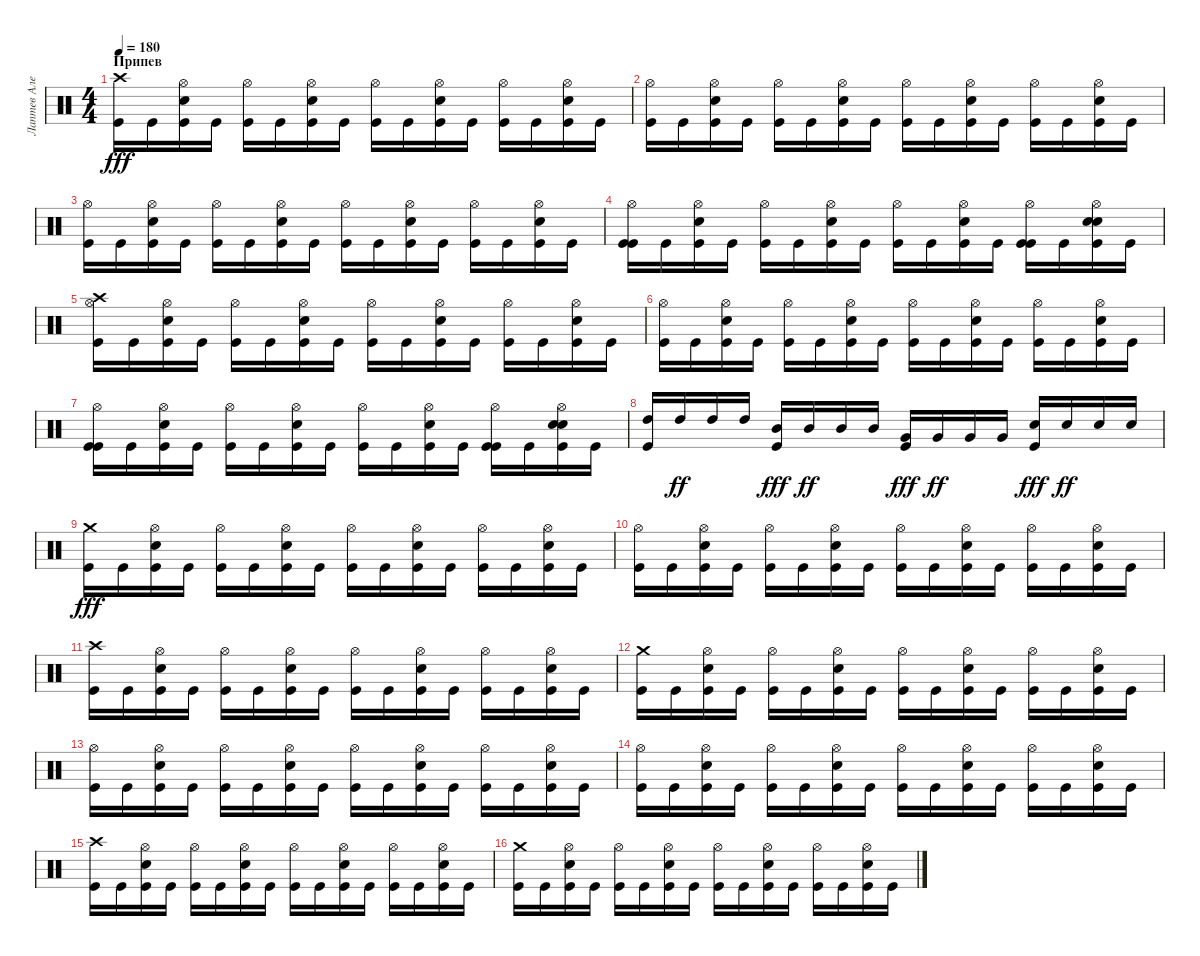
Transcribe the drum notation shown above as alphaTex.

\track ("Лаптев Алексей" "Лаптев Але") {instrument percussion}
\staff {score}
\articulation defaults
\ts (4 4)
\section ("" "Припев")
\tempo 180
\clef neutral
\ks c
("Crash high (hit)" "Kick (hit)").16{dy fff} "Kick (hit)".16 ("Hi-Hat (open)" "Snare (hit) 2" "Kick (hit)").16 "Kick (hit)".16 ("Hi-Hat (open)" "Kick (hit)").16 "Kick (hit)".16 ("Snare (hit) 2" "Hi-Hat (open)" "Kick (hit)").16 "Kick (hit)".16 ("Hi-Hat (open)" "Kick (hit)").16 "Kick (hit)".16 ("Hi-Hat (open)" "Snare (hit) 2" "Kick (hit)").16 "Kick (hit)".16 ("Hi-Hat (open)" "Kick (hit)").16 "Kick (hit)".16 ("Hi-Hat (open)" "Snare (hit) 2" "Kick (hit)").16 "Kick (hit)".16 |
("Hi-Hat (open)" "Kick (hit)").16 "Kick (hit)".16 ("Hi-Hat (open)" "Snare (hit) 2" "Kick (hit)").16 "Kick (hit)".16 ("Hi-Hat (open)" "Kick (hit)").16 "Kick (hit)".16 ("Snare (hit) 2" "Hi-Hat (open)" "Kick (hit)").16 "Kick (hit)".16 ("Hi-Hat (open)" "Kick (hit)").16 "Kick (hit)".16 ("Hi-Hat (open)" "Snare (hit) 2" "Kick (hit)").16 "Kick (hit)".16 ("Hi-Hat (open)" "Kick (hit)").16 "Kick (hit)".16 ("Hi-Hat (open)" "Snare (hit) 2" "Kick (hit)").16 "Kick (hit)".16 |
("Hi-Hat (open)" "Kick (hit)").16 "Kick (hit)".16 ("Hi-Hat (open)" "Snare (hit) 2" "Kick (hit)").16 "Kick (hit)".16 ("Hi-Hat (open)" "Kick (hit)").16 "Kick (hit)".16 ("Snare (hit) 2" "Hi-Hat (open)" "Kick (hit)").16 "Kick (hit)".16 ("Hi-Hat (open)" "Kick (hit)").16 "Kick (hit)".16 ("Hi-Hat (open)" "Snare (hit) 2" "Kick (hit)").16 "Kick (hit)".16 ("Hi-Hat (open)" "Kick (hit)").16 "Kick (hit)".16 ("Hi-Hat (open)" "Snare (hit) 2" "Kick (hit)").16 "Kick (hit)".16 |
("Hi-Hat (open)" "Kick (hit)" "Kick (hit)").16 "Kick (hit)".16 ("Hi-Hat (open)" "Snare (hit) 2" "Kick (hit)").16 "Kick (hit)".16 ("Hi-Hat (open)" "Kick (hit)").16 "Kick (hit)".16 ("Snare (hit) 2" "Hi-Hat (open)" "Kick (hit)").16 "Kick (hit)".16 ("Hi-Hat (open)" "Kick (hit)").16 "Kick (hit)".16 ("Hi-Hat (open)" "Snare (hit) 2" "Kick (hit)").16 "Kick (hit)".16 ("Hi-Hat (open)" "Kick (hit)" "Kick (hit)").16 "Kick (hit)".16 ("Snare (hit) 2" "Hi-Hat (open)" "Snare (hit) 2" "Kick (hit)").16 "Kick (hit)".16 |
("Crash high (hit)" "Hi-Hat (open)" "Kick (hit)").16 "Kick (hit)".16 ("Hi-Hat (open)" "Snare (hit) 2" "Kick (hit)").16 "Kick (hit)".16 ("Hi-Hat (open)" "Kick (hit)").16 "Kick (hit)".16 ("Snare (hit) 2" "Hi-Hat (open)" "Kick (hit)").16 "Kick (hit)".16 ("Hi-Hat (open)" "Kick (hit)").16 "Kick (hit)".16 ("Hi-Hat (open)" "Snare (hit) 2" "Kick (hit)").16 "Kick (hit)".16 ("Hi-Hat (open)" "Kick (hit)").16 "Kick (hit)".16 ("Hi-Hat (open)" "Snare (hit) 2" "Kick (hit)").16 "Kick (hit)".16 |
("Hi-Hat (open)" "Kick (hit)").16 "Kick (hit)".16 ("Hi-Hat (open)" "Snare (hit) 2" "Kick (hit)").16 "Kick (hit)".16 ("Hi-Hat (open)" "Kick (hit)").16 "Kick (hit)".16 ("Snare (hit) 2" "Hi-Hat (open)" "Kick (hit)").16 "Kick (hit)".16 ("Hi-Hat (open)" "Kick (hit)").16 "Kick (hit)".16 ("Hi-Hat (open)" "Snare (hit) 2" "Kick (hit)").16 "Kick (hit)".16 ("Hi-Hat (open)" "Kick (hit)").16 "Kick (hit)".16 ("Hi-Hat (open)" "Snare (hit) 2" "Kick (hit)").16 "Kick (hit)".16 |
("Hi-Hat (open)" "Kick (hit)" "Kick (hit)").16 "Kick (hit)".16 ("Hi-Hat (open)" "Snare (hit) 2" "Kick (hit)").16 "Kick (hit)".16 ("Hi-Hat (open)" "Kick (hit)").16 "Kick (hit)".16 ("Snare (hit) 2" "Hi-Hat (open)" "Kick (hit)").16 "Kick (hit)".16 ("Hi-Hat (open)" "Kick (hit)").16 "Kick (hit)".16 ("Hi-Hat (open)" "Snare (hit) 2" "Kick (hit)").16 "Kick (hit)".16 ("Hi-Hat (open)" "Kick (hit)" "Kick (hit)").16 "Kick (hit)".16 ("Snare (hit) 2" "Hi-Hat (open)" "Snare (hit) 2" "Kick (hit)").16 "Kick (hit)".16 |
("High Tom (hit)" "Kick (hit)").16 "High Tom (hit)".16{dy ff} "High Tom (hit)".16 "High Tom (hit)".16 ("Mid Tom (hit)" "Kick (hit)").16{dy fff} "Mid Tom (hit)".16{dy ff} "Mid Tom (hit)".16 "Mid Tom (hit)".16 ("Very Low Tom (hit)" "Kick (hit)").16{dy fff} "Very Low Tom (hit)".16{dy ff} "Very Low Tom (hit)".16 "Very Low Tom (hit)".16 ("Electric Snare (hit)" "Kick (hit)").16{dy fff} "Electric Snare (hit)".16{dy ff} "Electric Snare (hit)".16 "Electric Snare (hit)".16 |
("Crash medium (hit)" "Kick (hit)").16{dy fff} "Kick (hit)".16 ("Hi-Hat (open)" "Snare (hit) 2" "Kick (hit)").16 "Kick (hit)".16 ("Hi-Hat (open)" "Kick (hit)").16 "Kick (hit)".16 ("Snare (hit) 2" "Hi-Hat (open)" "Kick (hit)").16 "Kick (hit)".16 ("Hi-Hat (open)" "Kick (hit)").16 "Kick (hit)".16 ("Hi-Hat (open)" "Snare (hit) 2" "Kick (hit)").16 "Kick (hit)".16 ("Hi-Hat (open)" "Kick (hit)").16 "Kick (hit)".16 ("Hi-Hat (open)" "Snare (hit) 2" "Kick (hit)").16 "Kick (hit)".16 |
("Hi-Hat (open)" "Kick (hit)").16 "Kick (hit)".16 ("Hi-Hat (open)" "Snare (hit) 2" "Kick (hit)").16 "Kick (hit)".16 ("Hi-Hat (open)" "Kick (hit)").16 "Kick (hit)".16 ("Snare (hit) 2" "Hi-Hat (open)" "Kick (hit)").16 "Kick (hit)".16 ("Hi-Hat (open)" "Kick (hit)").16 "Kick (hit)".16 ("Hi-Hat (open)" "Snare (hit) 2" "Kick (hit)").16 "Kick (hit)".16 ("Hi-Hat (open)" "Kick (hit)").16 "Kick (hit)".16 ("Hi-Hat (open)" "Snare (hit) 2" "Kick (hit)").16 "Kick (hit)".16 |
("Crash high (hit)" "Kick (hit)").16 "Kick (hit)".16 ("Hi-Hat (open)" "Snare (hit) 2" "Kick (hit)").16 "Kick (hit)".16 ("Hi-Hat (open)" "Kick (hit)").16 "Kick (hit)".16 ("Snare (hit) 2" "Hi-Hat (open)" "Kick (hit)").16 "Kick (hit)".16 ("Hi-Hat (open)" "Kick (hit)").16 "Kick (hit)".16 ("Hi-Hat (open)" "Snare (hit) 2" "Kick (hit)").16 "Kick (hit)".16 ("Hi-Hat (open)" "Kick (hit)").16 "Kick (hit)".16 ("Hi-Hat (open)" "Snare (hit) 2" "Kick (hit)").16 "Kick (hit)".16 |
("Crash medium (hit)" "Kick (hit)").16 "Kick (hit)".16 ("Hi-Hat (open)" "Snare (hit) 2" "Kick (hit)").16 "Kick (hit)".16 ("Hi-Hat (open)" "Kick (hit)").16 "Kick (hit)".16 ("Snare (hit) 2" "Hi-Hat (open)" "Kick (hit)").16 "Kick (hit)".16 ("Hi-Hat (open)" "Kick (hit)").16 "Kick (hit)".16 ("Hi-Hat (open)" "Snare (hit) 2" "Kick (hit)").16 "Kick (hit)".16 ("Hi-Hat (open)" "Kick (hit)").16 "Kick (hit)".16 ("Hi-Hat (open)" "Snare (hit) 2" "Kick (hit)").16 "Kick (hit)".16 |
("Hi-Hat (open)" "Kick (hit)").16 "Kick (hit)".16 ("Hi-Hat (open)" "Snare (hit) 2" "Kick (hit)").16 "Kick (hit)".16 ("Hi-Hat (open)" "Kick (hit)").16 "Kick (hit)".16 ("Snare (hit) 2" "Hi-Hat (open)" "Kick (hit)").16 "Kick (hit)".16 ("Hi-Hat (open)" "Kick (hit)").16 "Kick (hit)".16 ("Hi-Hat (open)" "Snare (hit) 2" "Kick (hit)").16 "Kick (hit)".16 ("Hi-Hat (open)" "Kick (hit)").16 "Kick (hit)".16 ("Hi-Hat (open)" "Snare (hit) 2" "Kick (hit)").16 "Kick (hit)".16 |
("Hi-Hat (open)" "Kick (hit)").16 "Kick (hit)".16 ("Hi-Hat (open)" "Snare (hit) 2" "Kick (hit)").16 "Kick (hit)".16 ("Hi-Hat (open)" "Kick (hit)").16 "Kick (hit)".16 ("Snare (hit) 2" "Hi-Hat (open)" "Kick (hit)").16 "Kick (hit)".16 ("Hi-Hat (open)" "Kick (hit)").16 "Kick (hit)".16 ("Hi-Hat (open)" "Snare (hit) 2" "Kick (hit)").16 "Kick (hit)".16 ("Hi-Hat (open)" "Kick (hit)").16 "Kick (hit)".16 ("Hi-Hat (open)" "Snare (hit) 2" "Kick (hit)").16 "Kick (hit)".16 |
("Crash high (hit)" "Kick (hit)").16 "Kick (hit)".16 ("Hi-Hat (open)" "Snare (hit) 2" "Kick (hit)").16 "Kick (hit)".16 ("Hi-Hat (open)" "Kick (hit)").16 "Kick (hit)".16 ("Snare (hit) 2" "Hi-Hat (open)" "Kick (hit)").16 "Kick (hit)".16 ("Hi-Hat (open)" "Kick (hit)").16 "Kick (hit)".16 ("Hi-Hat (open)" "Snare (hit) 2" "Kick (hit)").16 "Kick (hit)".16 ("Hi-Hat (open)" "Kick (hit)").16 "Kick (hit)".16 ("Hi-Hat (open)" "Snare (hit) 2" "Kick (hit)").16 "Kick (hit)".16 |
("Crash medium (hit)" "Kick (hit)").16 "Kick (hit)".16 ("Hi-Hat (open)" "Snare (hit) 2" "Kick (hit)").16 "Kick (hit)".16 ("Hi-Hat (open)" "Kick (hit)").16 "Kick (hit)".16 ("Snare (hit) 2" "Hi-Hat (open)" "Kick (hit)").16 "Kick (hit)".16 ("Hi-Hat (open)" "Kick (hit)").16 "Kick (hit)".16 ("Hi-Hat (open)" "Snare (hit) 2" "Kick (hit)").16 "Kick (hit)".16 ("Hi-Hat (open)" "Kick (hit)").16 "Kick (hit)".16 ("Hi-Hat (open)" "Snare (hit) 2" "Kick (hit)").16 "Kick (hit)".16
